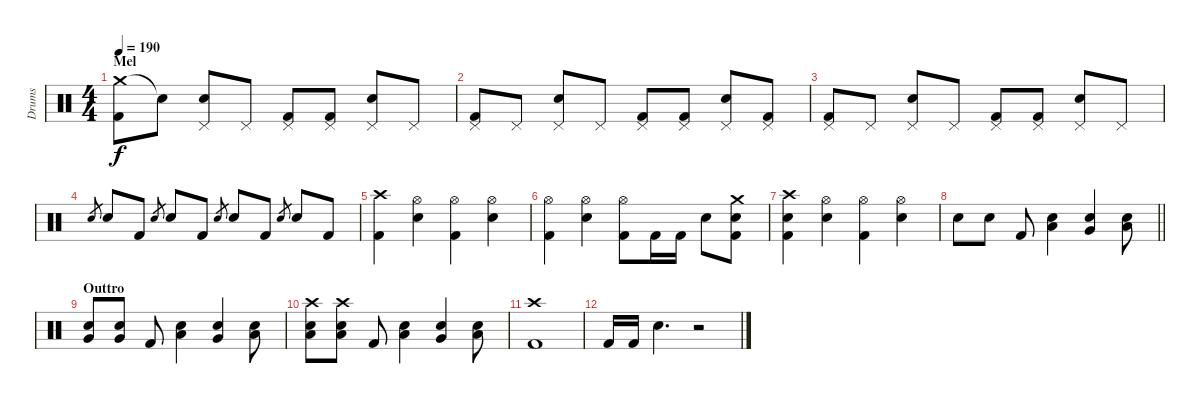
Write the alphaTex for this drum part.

\track ("Drums" "Drums") {instrument percussion}
\staff {score}
\articulation defaults
\ts (4 4)
\section ("" "Mel")
\tempo 190
\clef neutral
\ks c
("Crash medium (hit)" "Kick (hit) 2").8{dy f} "Snare (hit)"{t}.8 ("Pedal Hi-Hat (hit)" "Snare (hit) 2").8 "Pedal Hi-Hat (hit)".8 ("Pedal Hi-Hat (hit)" "Kick (hit) 2").8 ("Pedal Hi-Hat (hit)" "Kick (hit) 2").8 ("Pedal Hi-Hat (hit)" "Snare (hit) 2").8 "Pedal Hi-Hat (hit)".8 |
("Pedal Hi-Hat (hit)" "Kick (hit) 2").8 "Pedal Hi-Hat (hit)".8 ("Pedal Hi-Hat (hit)" "Snare (hit) 2").8 "Pedal Hi-Hat (hit)".8 ("Pedal Hi-Hat (hit)" "Kick (hit) 2").8 ("Pedal Hi-Hat (hit)" "Kick (hit) 2").8 ("Pedal Hi-Hat (hit)" "Snare (hit) 2").8 ("Pedal Hi-Hat (hit)" "Kick (hit) 2").8 |
("Pedal Hi-Hat (hit)" "Kick (hit) 2").8 "Pedal Hi-Hat (hit)".8 ("Pedal Hi-Hat (hit)" "Snare (hit) 2").8 "Pedal Hi-Hat (hit)".8 ("Pedal Hi-Hat (hit)" "Kick (hit) 2").8 ("Pedal Hi-Hat (hit)" "Kick (hit) 2").8 ("Pedal Hi-Hat (hit)" "Snare (hit) 2").8 "Pedal Hi-Hat (hit)".8 |
"Snare (hit) 2".8{gr} "Snare (hit) 2".8 "Kick (hit) 2".8 "Snare (hit) 2".8{gr} "Snare (hit) 2".8 "Kick (hit) 2".8 "Snare (hit) 2".8{gr} "Snare (hit) 2".8 "Kick (hit) 2".8 "Snare (hit) 2".8{gr} "Snare (hit) 2".8 "Kick (hit) 2".8 |
("Crash high (hit)" "Kick (hit) 2").4 ("Hi-Hat (open)" "Snare (hit) 2").4 ("Hi-Hat (open)" "Kick (hit) 2").4 ("Hi-Hat (open)" "Snare (hit) 2").4 |
("Hi-Hat (open)" "Kick (hit) 2").4 ("Hi-Hat (open)" "Snare (hit) 2").4 ("Hi-Hat (open)" "Kick (hit) 2").8 "Kick (hit) 2".16 "Kick (hit) 2".16 "Snare (hit) 2".8 ("Crash medium (hit)" "Snare (hit) 2" "Kick (hit) 2").8 |
("Crash high (hit)" "Snare (hit) 2" "Kick (hit) 2").4 ("Hi-Hat (open)" "Snare (hit) 2").4 ("Hi-Hat (open)" "Kick (hit) 2").4 ("Hi-Hat (open)" "Snare (hit) 2").4 |
\barLineRight lightlight "Snare (hit) 2".8 "Snare (hit) 2".8 "Kick (hit) 2".8
("Low Tom (hit)" "Snare (hit) 2").4 ("Very Low Tom (hit)" "Snare (hit) 2").4 ("Low Floor Tom (hit)" "Snare (hit) 2").8 |
\section ("" "Outtro")
("Very Low Tom (hit)" "Snare (hit) 2").8 ("Very Low Tom (hit)" "Snare (hit) 2").8 "Kick (hit) 2".8 ("Low Tom (hit)" "Snare (hit) 2").4 ("Very Low Tom (hit)" "Snare (hit) 2").4 ("Low Floor Tom (hit)" "Snare (hit) 2").8 |
("Crash high (hit)" "Low Floor Tom (hit)" "Snare (hit) 2").8 ("Crash high (hit)" "Low Floor Tom (hit)" "Snare (hit) 2").8 "Kick (hit) 2".8 ("Low Tom (hit)" "Snare (hit) 2").4 ("Very Low Tom (hit)" "Snare (hit) 2").4 ("Low Floor Tom (hit)" "Snare (hit) 2").8 |
("Crash high (hit)" "Kick (hit) 2").1 |
"Kick (hit) 2".16 "Kick (hit) 2".16 "Snare (hit) 2".4{d} r.2
